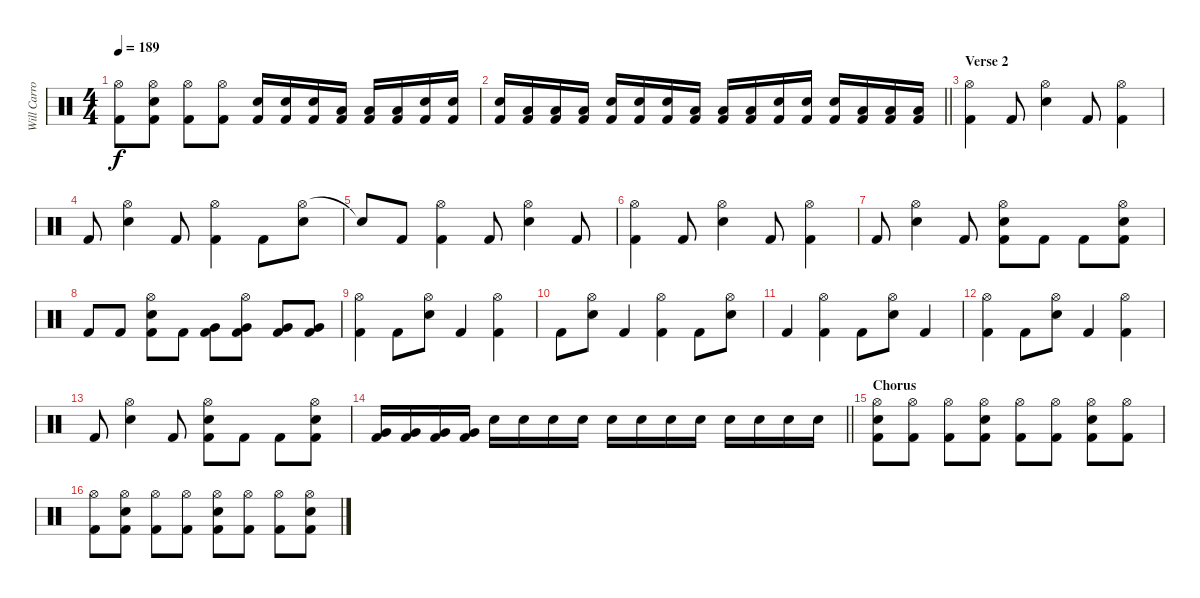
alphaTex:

\track ("Will Carroll" "Will Carro") {instrument percussion}
\staff {score}
\articulation defaults
\ts (4 4)
\tempo 189
\clef neutral
\ks c
("Hi-Hat (open)" "Kick (hit) 2").8{dy f} ("Hi-Hat (open)" "Electric Snare (hit)" "Kick (hit) 2").8 ("Hi-Hat (open)" "Kick (hit) 2").8 ("Hi-Hat (open)" "Kick (hit) 2").8 ("Electric Snare (hit)" "Kick (hit) 2").16 ("Electric Snare (hit)" "Kick (hit) 2").16 ("Electric Snare (hit)" "Kick (hit) 2").16 ("Low Floor Tom (hit)" "Kick (hit) 2").16 ("Low Floor Tom (hit)" "Kick (hit) 2").16 ("Low Floor Tom (hit)" "Kick (hit) 2").16 ("Electric Snare (hit)" "Kick (hit) 2").16 ("Electric Snare (hit)" "Kick (hit) 2").16 |
\barLineRight lightlight
("Electric Snare (hit)" "Kick (hit) 2").16 ("Low Floor Tom (hit)" "Kick (hit) 2").16 ("Low Floor Tom (hit)" "Kick (hit) 2").16 ("Low Floor Tom (hit)" "Kick (hit) 2").16 ("Electric Snare (hit)" "Kick (hit) 2").16 ("Electric Snare (hit)" "Kick (hit) 2").16 ("Electric Snare (hit)" "Kick (hit) 2").16 ("Low Floor Tom (hit)" "Kick (hit) 2").16 ("Low Floor Tom (hit)" "Kick (hit) 2").16 ("Low Floor Tom (hit)" "Kick (hit) 2").16 ("Electric Snare (hit)" "Kick (hit) 2").16 ("Electric Snare (hit)" "Kick (hit) 2").16 ("Electric Snare (hit)" "Kick (hit) 2").16 ("Low Floor Tom (hit)" "Kick (hit) 2").16 ("Low Floor Tom (hit)" "Kick (hit) 2").16 ("Low Floor Tom (hit)" "Kick (hit) 2").16 |
\section ("" "Verse 2")
("Hi-Hat (open)" "Kick (hit) 2").4 "Kick (hit) 2".8 ("Hi-Hat (open)" "Electric Snare (hit)").4 "Kick (hit) 2".8 ("Hi-Hat (open)" "Kick (hit) 2").4 |
"Kick (hit) 2".8 ("Hi-Hat (open)" "Electric Snare (hit)").4 "Kick (hit) 2".8 ("Hi-Hat (open)" "Kick (hit) 2").4 "Kick (hit) 2".8 ("Hi-Hat (open)" "Electric Snare (hit)").8 |
"Snare (hit)"{t}.8 "Kick (hit) 2".8 ("Hi-Hat (open)" "Kick (hit) 2").4 "Kick (hit) 2".8 ("Hi-Hat (open)" "Electric Snare (hit)").4 "Kick (hit) 2".8 |
("Hi-Hat (open)" "Kick (hit) 2").4 "Kick (hit) 2".8 ("Hi-Hat (open)" "Electric Snare (hit)").4 "Kick (hit) 2".8 ("Hi-Hat (open)" "Kick (hit) 2").4 |
"Kick (hit) 2".8 ("Hi-Hat (open)" "Electric Snare (hit)").4 "Kick (hit) 2".8 ("Hi-Hat (open)" "Electric Snare (hit)" "Kick (hit) 2").8 "Kick (hit) 2".8 "Kick (hit) 2".8 ("Hi-Hat (open)" "Electric Snare (hit)" "Kick (hit) 2").8 |
"Kick (hit) 2".8 "Kick (hit) 2".8 ("Hi-Hat (open)" "Electric Snare (hit)" "Kick (hit) 2").8 "Kick (hit) 2".8 ("Very Low Tom (hit)" "Kick (hit) 2").8 ("Hi-Hat (open)" "Very Low Tom (hit)" "Kick (hit) 2").8 ("Very Low Tom (hit)" "Kick (hit) 2").8 ("Very Low Tom (hit)" "Kick (hit) 2").8 |
("Hi-Hat (open)" "Kick (hit) 2").4 "Kick (hit) 2".8 ("Hi-Hat (open)" "Electric Snare (hit)").8 "Kick (hit) 2".4 ("Hi-Hat (open)" "Kick (hit) 2").4 |
"Kick (hit) 2".8 ("Hi-Hat (open)" "Electric Snare (hit)").8 "Kick (hit) 2".4 ("Hi-Hat (open)" "Kick (hit) 2").4 "Kick (hit) 2".8 ("Hi-Hat (open)" "Electric Snare (hit)").8 |
"Kick (hit) 2".4 ("Hi-Hat (open)" "Kick (hit) 2").4 "Kick (hit) 2".8 ("Hi-Hat (open)" "Electric Snare (hit)").8 "Kick (hit) 2".4 |
("Hi-Hat (open)" "Kick (hit) 2").4 "Kick (hit) 2".8 ("Hi-Hat (open)" "Electric Snare (hit)").8 "Kick (hit) 2".4 ("Hi-Hat (open)" "Kick (hit) 2").4 |
"Kick (hit) 2".8 ("Hi-Hat (open)" "Electric Snare (hit)").4 "Kick (hit) 2".8 ("Hi-Hat (open)" "Electric Snare (hit)" "Kick (hit) 2").8 "Kick (hit) 2".8 "Kick (hit) 2".8 ("Hi-Hat (open)" "Electric Snare (hit)" "Kick (hit) 2").8 |
\barLineRight lightlight
("Very Low Tom (hit)" "Kick (hit) 2").16 ("Very Low Tom (hit)" "Kick (hit) 2").16 ("Very Low Tom (hit)" "Kick (hit) 2").16 ("Very Low Tom (hit)" "Kick (hit) 2").16 "Electric Snare (hit)".16 "Electric Snare (hit)".16 "Electric Snare (hit)".16 "Electric Snare (hit)".16 "Electric Snare (hit)".16 "Electric Snare (hit)".16 "Electric Snare (hit)".16 "Electric Snare (hit)".16 "Electric Snare (hit)".16 "Electric Snare (hit)".16 "Electric Snare (hit)".16 "Electric Snare (hit)".16 |
\section ("" "Chorus")
("Hi-Hat (open)" "Electric Snare (hit)" "Kick (hit) 2").8 ("Hi-Hat (open)" "Kick (hit) 2").8 ("Hi-Hat (open)" "Kick (hit) 2").8 ("Hi-Hat (open)" "Electric Snare (hit)" "Kick (hit) 2").8 ("Hi-Hat (open)" "Kick (hit) 2").8 ("Hi-Hat (open)" "Kick (hit) 2").8 ("Hi-Hat (open)" "Electric Snare (hit)" "Kick (hit) 2").8 ("Hi-Hat (open)" "Kick (hit) 2").8 |
("Hi-Hat (open)" "Kick (hit) 2").8 ("Hi-Hat (open)" "Electric Snare (hit)" "Kick (hit) 2").8 ("Hi-Hat (open)" "Kick (hit) 2").8 ("Hi-Hat (open)" "Kick (hit) 2").8 ("Hi-Hat (open)" "Electric Snare (hit)" "Kick (hit) 2").8 ("Hi-Hat (open)" "Kick (hit) 2").8 ("Hi-Hat (open)" "Kick (hit) 2").8 ("Hi-Hat (open)" "Electric Snare (hit)" "Kick (hit) 2").8
